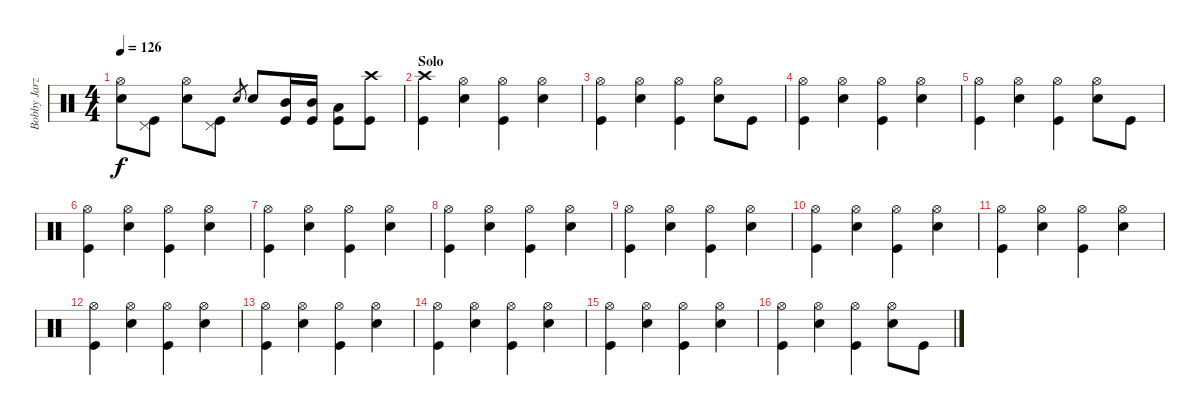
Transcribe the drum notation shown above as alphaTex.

\track ("Bobby Jarzombek" "Bobby Jarz") {instrument percussion}
\staff {score}
\articulation defaults
\ts (4 4)
\tempo 126
\clef neutral
\ks c
("Hi-Hat (open)" "Electric Snare (hit)").8{dy f} ("Pedal Hi-Hat (hit)" "Kick (hit)").8 ("Hi-Hat (open)" "Electric Snare (hit)").8 ("Pedal Hi-Hat (hit)" "Kick (hit)").8 "Electric Snare (hit)".8{gr} "Electric Snare (hit)".8 ("Mid Tom (hit)" "Kick (hit)").16 ("Mid Tom (hit)" "Kick (hit)").16 ("Low Tom (hit)" "Kick (hit)").8 ("Crash high (hit)" "Kick (hit)").8 |
\section ("" "Solo")
("Crash high (hit)" "Kick (hit)").4 ("Hi-Hat (open)" "Electric Snare (hit)").4 ("Hi-Hat (open)" "Kick (hit)").4 ("Hi-Hat (open)" "Electric Snare (hit)").4 |
("Hi-Hat (open)" "Kick (hit)").4 ("Hi-Hat (open)" "Electric Snare (hit)").4 ("Hi-Hat (open)" "Kick (hit)").4 ("Hi-Hat (open)" "Electric Snare (hit)").8 "Kick (hit)".8 |
("Hi-Hat (open)" "Kick (hit)").4 ("Hi-Hat (open)" "Electric Snare (hit)").4 ("Hi-Hat (open)" "Kick (hit)").4 ("Hi-Hat (open)" "Electric Snare (hit)").4 |
("Hi-Hat (open)" "Kick (hit)").4 ("Hi-Hat (open)" "Electric Snare (hit)").4 ("Hi-Hat (open)" "Kick (hit)").4 ("Hi-Hat (open)" "Electric Snare (hit)").8 "Kick (hit)".8 |
("Hi-Hat (open)" "Kick (hit)").4 ("Hi-Hat (open)" "Electric Snare (hit)").4 ("Hi-Hat (open)" "Kick (hit)").4 ("Hi-Hat (open)" "Electric Snare (hit)").4 |
("Hi-Hat (open)" "Kick (hit)").4 ("Hi-Hat (open)" "Electric Snare (hit)").4 ("Hi-Hat (open)" "Kick (hit)").4 ("Hi-Hat (open)" "Electric Snare (hit)").4 |
("Hi-Hat (open)" "Kick (hit)").4 ("Hi-Hat (open)" "Electric Snare (hit)").4 ("Hi-Hat (open)" "Kick (hit)").4 ("Hi-Hat (open)" "Electric Snare (hit)").4 |
("Hi-Hat (open)" "Kick (hit)").4 ("Hi-Hat (open)" "Electric Snare (hit)").4 ("Hi-Hat (open)" "Kick (hit)").4 ("Hi-Hat (open)" "Electric Snare (hit)").4 |
("Hi-Hat (open)" "Kick (hit)").4 ("Hi-Hat (open)" "Electric Snare (hit)").4 ("Hi-Hat (open)" "Kick (hit)").4 ("Hi-Hat (open)" "Electric Snare (hit)").4 |
("Hi-Hat (open)" "Kick (hit)").4 ("Hi-Hat (open)" "Electric Snare (hit)").4 ("Hi-Hat (open)" "Kick (hit)").4 ("Hi-Hat (open)" "Electric Snare (hit)").4 |
("Hi-Hat (open)" "Kick (hit)").4 ("Hi-Hat (open)" "Electric Snare (hit)").4 ("Hi-Hat (open)" "Kick (hit)").4 ("Hi-Hat (open)" "Electric Snare (hit)").4 |
("Hi-Hat (open)" "Kick (hit)").4 ("Hi-Hat (open)" "Electric Snare (hit)").4 ("Hi-Hat (open)" "Kick (hit)").4 ("Hi-Hat (open)" "Electric Snare (hit)").4 |
("Hi-Hat (open)" "Kick (hit)").4 ("Hi-Hat (open)" "Electric Snare (hit)").4 ("Hi-Hat (open)" "Kick (hit)").4 ("Hi-Hat (open)" "Electric Snare (hit)").4 |
("Hi-Hat (open)" "Kick (hit)").4 ("Hi-Hat (open)" "Electric Snare (hit)").4 ("Hi-Hat (open)" "Kick (hit)").4 ("Hi-Hat (open)" "Electric Snare (hit)").4 |
("Hi-Hat (open)" "Kick (hit)").4 ("Hi-Hat (open)" "Electric Snare (hit)").4 ("Hi-Hat (open)" "Kick (hit)").4 ("Hi-Hat (open)" "Electric Snare (hit)").8 "Kick (hit)".8
